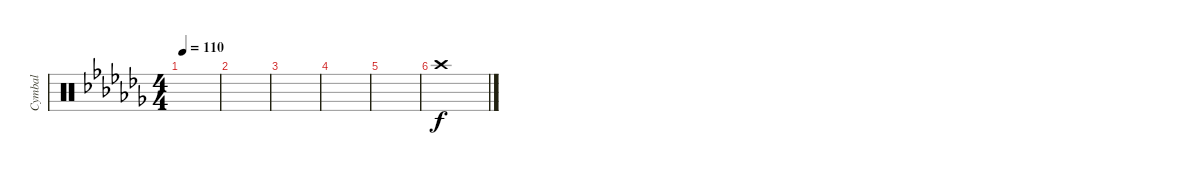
\track ("Cymbal" "Cymbal") {instrument percussion}
\staff {score}
\articulation defaults
\ts (4 4)
\tempo 110
\clef neutral
\ks abminor
|
|
|
|
|
"Crash high (hit)".1
